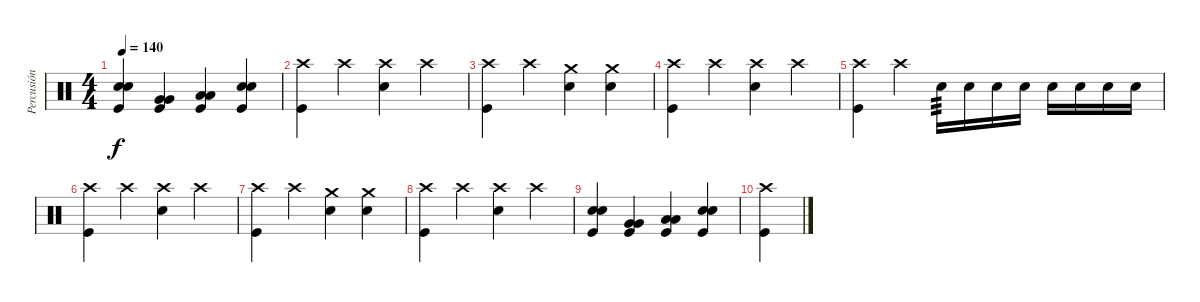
\track ("Percusión" "Percusión") {instrument percussion}
\staff
\articulation defaults
\ts (4 4)
\tempo 140
\clef neutral
\ks c
("Kick (hit)" "Electric Snare (hit)" "Electric Snare (hit)").4{dy f} ("Kick (hit)" "Very Low Tom (hit)" "Very Low Tom (hit)").4 ("Kick (hit)" "Low Floor Tom (hit)" "Low Floor Tom (hit)").4 ("Kick (hit)" "Electric Snare (hit)" "Electric Snare (hit)").4 |
("Kick (hit)" "Crash high (hit)").4 "Crash high (hit)".4 ("Crash high (hit)" "Electric Snare (hit)").4 "Crash high (hit)".4 |
("Kick (hit)" "Crash high (hit)").4 "Crash high (hit)".4 ("Crash medium (hit)" "Electric Snare (hit)").4 ("Crash medium (hit)" "Electric Snare (hit)").4 |
("Kick (hit)" "Crash high (hit)").4 "Crash high (hit)".4 ("Crash high (hit)" "Electric Snare (hit)").4 "Crash high (hit)".4 |
("Kick (hit)" "Crash high (hit)").4 "Crash high (hit)".4 "Electric Snare (hit)".16{tp 3} "Electric Snare (hit)".16 "Electric Snare (hit)".16 "Electric Snare (hit)".16 "Electric Snare (hit)".16 "Electric Snare (hit)".16 "Electric Snare (hit)".16 "Electric Snare (hit)".16 |
("Kick (hit)" "Crash high (hit)").4 "Crash high (hit)".4 ("Crash high (hit)" "Electric Snare (hit)").4 "Crash high (hit)".4 |
("Kick (hit)" "Crash high (hit)").4 "Crash high (hit)".4 ("Crash medium (hit)" "Electric Snare (hit)").4 ("Crash medium (hit)" "Electric Snare (hit)").4 |
("Kick (hit)" "Crash high (hit)").4 "Crash high (hit)".4 ("Crash high (hit)" "Electric Snare (hit)").4 "Crash high (hit)".4 |
("Kick (hit)" "Electric Snare (hit)" "Electric Snare (hit)").4 ("Kick (hit)" "Very Low Tom (hit)" "Very Low Tom (hit)").4 ("Kick (hit)" "Low Floor Tom (hit)" "Low Floor Tom (hit)").4 ("Kick (hit)" "Electric Snare (hit)" "Electric Snare (hit)").4 |
("Kick (hit)" "Crash high (hit)").4
